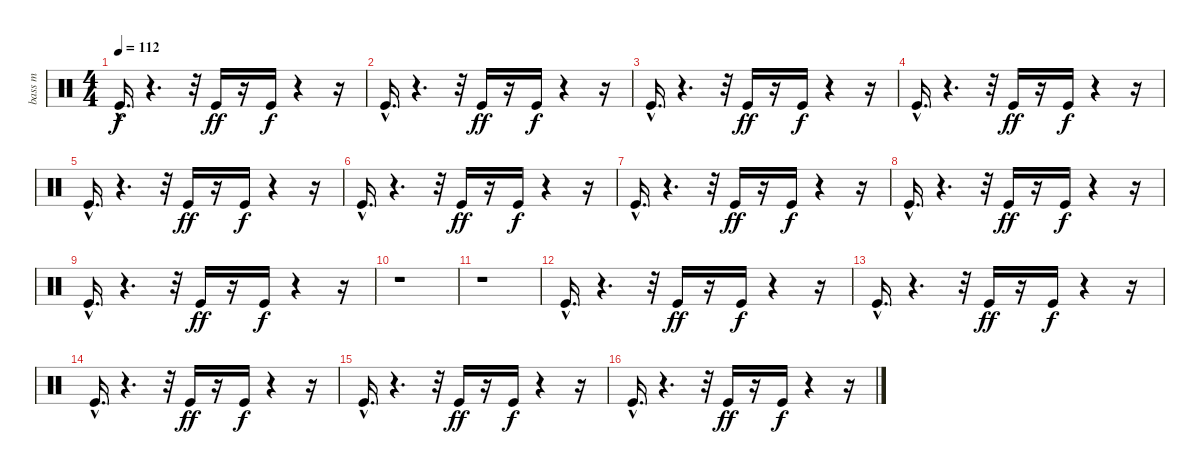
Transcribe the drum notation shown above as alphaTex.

\track ("bass m" "bass m") {instrument percussion}
\staff {score}
\articulation defaults
\ts (4 4)
\tempo 112
\clef neutral
\ks c "Kick (hit)"{hac}.16{d dy f}
r.4{d} r.32 "Kick (hit)".16{dy ff} r.16 "Kick (hit)".16{dy f} r.4 r.16 |
"Kick (hit)"{hac}.16{d} r.4{d} r.32 "Kick (hit)".16{dy ff} r.16 "Kick (hit)".16{dy f} r.4 r.16 |
"Kick (hit)"{hac}.16{d} r.4{d} r.32 "Kick (hit)".16{dy ff} r.16 "Kick (hit)".16{dy f} r.4 r.16 |
"Kick (hit)"{hac}.16{d} r.4{d} r.32 "Kick (hit)".16{dy ff} r.16 "Kick (hit)".16{dy f} r.4 r.16 |
"Kick (hit)"{hac}.16{d} r.4{d} r.32 "Kick (hit)".16{dy ff} r.16 "Kick (hit)".16{dy f} r.4 r.16 |
"Kick (hit)"{hac}.16{d} r.4{d} r.32 "Kick (hit)".16{dy ff} r.16 "Kick (hit)".16{dy f} r.4 r.16 |
"Kick (hit)"{hac}.16{d} r.4{d} r.32 "Kick (hit)".16{dy ff} r.16 "Kick (hit)".16{dy f} r.4 r.16 |
"Kick (hit)"{hac}.16{d} r.4{d} r.32 "Kick (hit)".16{dy ff} r.16 "Kick (hit)".16{dy f} r.4 r.16 |
"Kick (hit)"{hac}.16{d} r.4{d} r.32 "Kick (hit)".16{dy ff} r.16 "Kick (hit)".16{dy f} r.4 r.16 |
r.1 |
r.1 |
"Kick (hit)"{hac}.16{d} r.4{d} r.32 "Kick (hit)".16{dy ff} r.16 "Kick (hit)".16{dy f} r.4 r.16 |
"Kick (hit)"{hac}.16{d} r.4{d} r.32 "Kick (hit)".16{dy ff} r.16 "Kick (hit)".16{dy f} r.4 r.16 |
"Kick (hit)"{hac}.16{d} r.4{d} r.32 "Kick (hit)".16{dy ff} r.16 "Kick (hit)".16{dy f} r.4 r.16 |
"Kick (hit)"{hac}.16{d} r.4{d} r.32 "Kick (hit)".16{dy ff} r.16 "Kick (hit)".16{dy f} r.4 r.16 |
"Kick (hit)"{hac}.16{d} r.4{d} r.32 "Kick (hit)".16{dy ff} r.16 "Kick (hit)".16{dy f} r.4 r.16
